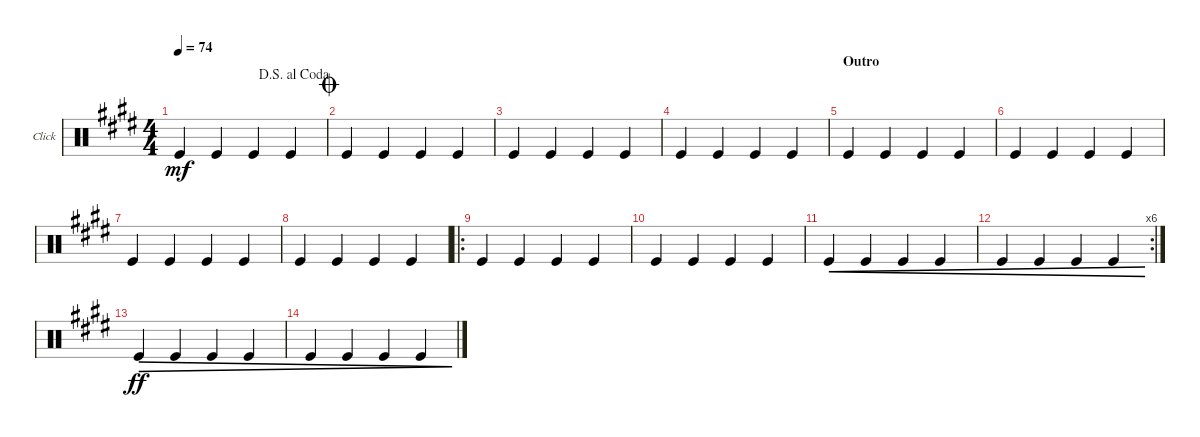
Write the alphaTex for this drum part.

\bracketExtendMode groupsimilarinstruments
\useSystemSignSeparator
\multiTrackTrackNamePolicy allsystems
\firstSystemTrackNameOrientation horizontal
\otherSystemsTrackNameOrientation horizontal
\track ("Click" "Click") {mute instrument percussion}
\staff {score}
\articulation defaults
\ts (4 4)
\jump dalsegnoalcoda
\tempo 74
\clef neutral
\scale
0.333333
\ks c#minor "Kick (hit)".4{dy mf} "Kick (hit)".4 "Kick (hit)".4 "Kick (hit)".4
|
\jump coda
\scale
0.333333 "Kick (hit)".4 "Kick (hit)".4 "Kick (hit)".4 "Kick (hit)".4 |
\scale
0.333333 "Kick (hit)".4 "Kick (hit)".4 "Kick (hit)".4 "Kick (hit)".4 |
\scale
0.333333 "Kick (hit)".4 "Kick (hit)".4 "Kick (hit)".4 "Kick (hit)".4 |
\section ("" "Outro")
\scale
0.333333 "Kick (hit)".4 "Kick (hit)".4 "Kick (hit)".4 "Kick (hit)".4 |
\scale
0.333333 "Kick (hit)".4 "Kick (hit)".4 "Kick (hit)".4 "Kick (hit)".4 |
\scale
0.333333 "Kick (hit)".4 "Kick (hit)".4 "Kick (hit)".4 "Kick (hit)".4 |
\scale
0.333333 "Kick (hit)".4 "Kick (hit)".4 "Kick (hit)".4 "Kick (hit)".4 |
\ro
\scale
0.333333 "Kick (hit)".4 "Kick (hit)".4 "Kick (hit)".4 "Kick (hit)".4 |
\scale
0.333333 "Kick (hit)".4 "Kick (hit)".4 "Kick (hit)".4 "Kick (hit)".4 |
\scale
0.333333 "Kick (hit)".4{cre} "Kick (hit)".4{cre} "Kick (hit)".4{cre} "Kick (hit)".4{cre} |
\rc 6
\scale
0.333333 "Kick (hit)".4{cre} "Kick (hit)".4{cre} "Kick (hit)".4{cre} "Kick (hit)".4{cre} |
"Kick (hit)".4{dec dy ff} "Kick (hit)".4{dec} "Kick (hit)".4{dec} "Kick (hit)".4{dec} |
"Kick (hit)".4{dec} "Kick (hit)".4{dec} "Kick (hit)".4{dec} "Kick (hit)".4{dec}
